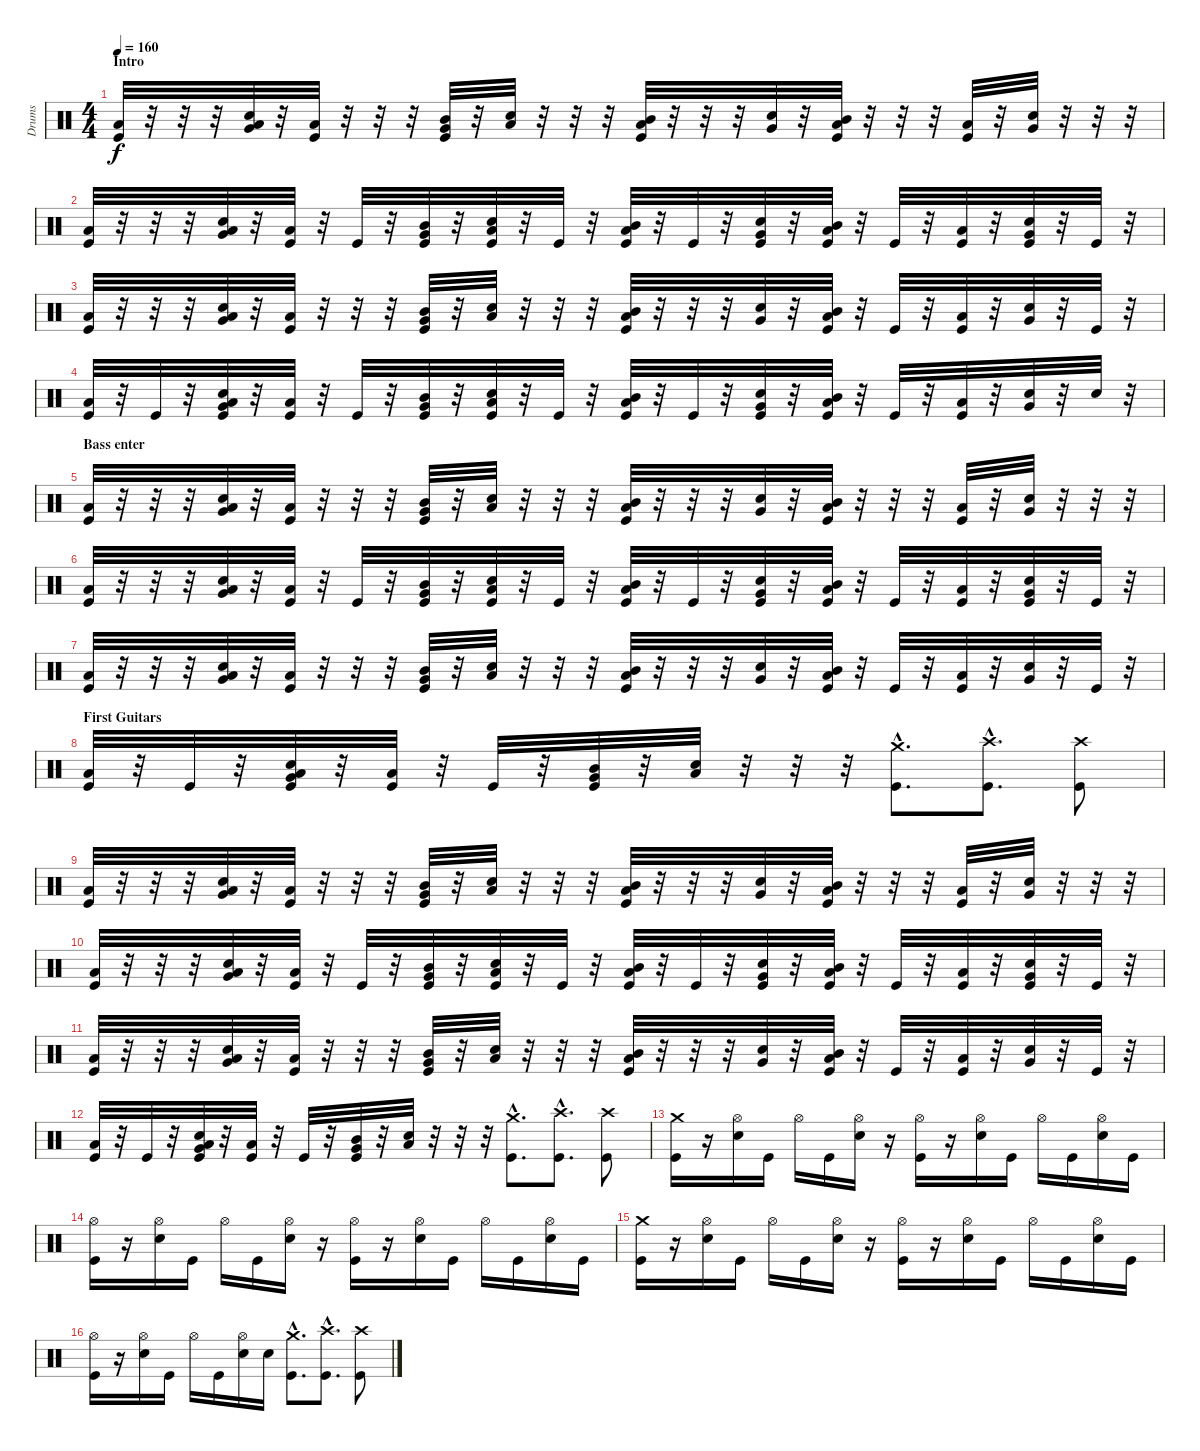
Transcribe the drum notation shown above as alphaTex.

\track ("Drums" "Drums") {instrument percussion}
\staff {score}
\articulation defaults
\ts (4 4)
\section ("" "Intro")
\tempo 160
\clef neutral
\ks c
("Low Tom (hit)" "Kick (hit)").32{dy f} r.32 r.32 r.32 ("Low Tom (hit)" "Very Low Tom (hit)" "Electric Snare (hit)").32 r.32 ("Low Tom (hit)" "Kick (hit)").32 r.32 r.32 r.32 ("Mid Tom (hit)" "Very Low Tom (hit)" "Kick (hit)").32 r.32 ("Low Tom (hit)" "Electric Snare (hit)").32 r.32 r.32 r.32 ("Low Tom (hit)" "Mid Tom (hit)" "Kick (hit)").32 r.32 r.32 r.32 ("Very Low Tom (hit)" "Electric Snare (hit)").32 r.32 ("Low Tom (hit)" "Mid Tom (hit)" "Kick (hit)").32 r.32 r.32 r.32 ("Low Tom (hit)" "Kick (hit)").32 r.32 ("Very Low Tom (hit)" "Electric Snare (hit)").32 r.32 r.32 r.32 |
("Low Tom (hit)" "Kick (hit)").32 r.32 r.32 r.32 ("Low Tom (hit)" "Very Low Tom (hit)" "Electric Snare (hit)").32 r.32 ("Low Tom (hit)" "Kick (hit)").32 r.32 "Kick (hit)".32 r.32 ("Mid Tom (hit)" "Very Low Tom (hit)" "Kick (hit)").32 r.32 ("Low Tom (hit)" "Electric Snare (hit)" "Kick (hit)").32 r.32 "Kick (hit)".32 r.32 ("Low Tom (hit)" "Mid Tom (hit)" "Kick (hit)").32 r.32 "Kick (hit)".32 r.32 ("Very Low Tom (hit)" "Electric Snare (hit)" "Kick (hit)").32 r.32 ("Low Tom (hit)" "Mid Tom (hit)" "Kick (hit)").32 r.32 "Kick (hit)".32 r.32 ("Low Tom (hit)" "Kick (hit)").32 r.32 ("Very Low Tom (hit)" "Electric Snare (hit)" "Kick (hit)").32 r.32 "Kick (hit)".32 r.32 |
("Low Tom (hit)" "Kick (hit)").32 r.32 r.32 r.32 ("Low Tom (hit)" "Very Low Tom (hit)" "Electric Snare (hit)").32 r.32 ("Low Tom (hit)" "Kick (hit)").32 r.32 r.32 r.32 ("Mid Tom (hit)" "Very Low Tom (hit)" "Kick (hit)").32 r.32 ("Low Tom (hit)" "Electric Snare (hit)").32 r.32 r.32 r.32 ("Low Tom (hit)" "Mid Tom (hit)" "Kick (hit)").32 r.32 r.32 r.32 ("Very Low Tom (hit)" "Electric Snare (hit)").32 r.32 ("Low Tom (hit)" "Mid Tom (hit)" "Kick (hit)").32 r.32 "Kick (hit)".32 r.32 ("Low Tom (hit)" "Kick (hit)").32 r.32 ("Very Low Tom (hit)" "Electric Snare (hit)").32 r.32 "Kick (hit)".32 r.32 |
("Low Tom (hit)" "Kick (hit)").32 r.32 "Kick (hit)".32 r.32 ("Low Tom (hit)" "Very Low Tom (hit)" "Electric Snare (hit)" "Kick (hit)").32 r.32 ("Low Tom (hit)" "Kick (hit)").32 r.32 "Kick (hit)".32 r.32 ("Mid Tom (hit)" "Very Low Tom (hit)" "Kick (hit)").32 r.32 ("Low Tom (hit)" "Electric Snare (hit)" "Kick (hit)").32 r.32 "Kick (hit)".32 r.32 ("Low Tom (hit)" "Mid Tom (hit)" "Kick (hit)").32 r.32 "Kick (hit)".32 r.32 ("Very Low Tom (hit)" "Electric Snare (hit)" "Kick (hit)").32 r.32 ("Low Tom (hit)" "Mid Tom (hit)" "Kick (hit)").32 r.32 "Kick (hit)".32 r.32 ("Low Tom (hit)" "Kick (hit)").32 r.32 ("Very Low Tom (hit)" "Electric Snare (hit)").32 r.32 "Electric Snare (hit)".32 r.32 |
\section ("" "Bass enter")
("Low Tom (hit)" "Kick (hit)").32 r.32 r.32 r.32 ("Low Tom (hit)" "Very Low Tom (hit)" "Electric Snare (hit)").32 r.32 ("Low Tom (hit)" "Kick (hit)").32 r.32 r.32 r.32 ("Mid Tom (hit)" "Very Low Tom (hit)" "Kick (hit)").32 r.32 ("Low Tom (hit)" "Electric Snare (hit)").32 r.32 r.32 r.32 ("Low Tom (hit)" "Mid Tom (hit)" "Kick (hit)").32 r.32 r.32 r.32 ("Very Low Tom (hit)" "Electric Snare (hit)").32 r.32 ("Low Tom (hit)" "Mid Tom (hit)" "Kick (hit)").32 r.32 r.32 r.32 ("Low Tom (hit)" "Kick (hit)").32 r.32 ("Very Low Tom (hit)" "Electric Snare (hit)").32 r.32 r.32 r.32 |
("Low Tom (hit)" "Kick (hit)").32 r.32 r.32 r.32 ("Low Tom (hit)" "Very Low Tom (hit)" "Electric Snare (hit)").32 r.32 ("Low Tom (hit)" "Kick (hit)").32 r.32 "Kick (hit)".32 r.32 ("Mid Tom (hit)" "Very Low Tom (hit)" "Kick (hit)").32 r.32 ("Low Tom (hit)" "Electric Snare (hit)" "Kick (hit)").32 r.32 "Kick (hit)".32 r.32 ("Low Tom (hit)" "Mid Tom (hit)" "Kick (hit)").32 r.32 "Kick (hit)".32 r.32 ("Very Low Tom (hit)" "Electric Snare (hit)" "Kick (hit)").32 r.32 ("Low Tom (hit)" "Mid Tom (hit)" "Kick (hit)").32 r.32 "Kick (hit)".32 r.32 ("Low Tom (hit)" "Kick (hit)").32 r.32 ("Very Low Tom (hit)" "Electric Snare (hit)" "Kick (hit)").32 r.32 "Kick (hit)".32 r.32 |
("Low Tom (hit)" "Kick (hit)").32 r.32 r.32 r.32 ("Low Tom (hit)" "Very Low Tom (hit)" "Electric Snare (hit)").32 r.32 ("Low Tom (hit)" "Kick (hit)").32 r.32 r.32 r.32 ("Mid Tom (hit)" "Very Low Tom (hit)" "Kick (hit)").32 r.32 ("Low Tom (hit)" "Electric Snare (hit)").32 r.32 r.32 r.32 ("Low Tom (hit)" "Mid Tom (hit)" "Kick (hit)").32 r.32 r.32 r.32 ("Very Low Tom (hit)" "Electric Snare (hit)").32 r.32 ("Low Tom (hit)" "Mid Tom (hit)" "Kick (hit)").32 r.32 "Kick (hit)".32 r.32 ("Low Tom (hit)" "Kick (hit)").32 r.32 ("Very Low Tom (hit)" "Electric Snare (hit)").32 r.32 "Kick (hit)".32 r.32 |
\section ("" "First Guitars")
("Low Tom (hit)" "Kick (hit)").32 r.32 "Kick (hit)".32 r.32 ("Low Tom (hit)" "Very Low Tom (hit)" "Electric Snare (hit)" "Kick (hit)").32 r.32 ("Low Tom (hit)" "Kick (hit)").32 r.32 "Kick (hit)".32 r.32 ("Mid Tom (hit)" "Very Low Tom (hit)" "Kick (hit)").32 r.32 ("Low Tom (hit)" "Electric Snare (hit)").32 r.32 r.32 r.32 ("Crash medium (hit)"{hac} "Kick (hit)"{hac}).8{d} ("Crash high (hit)"{hac} "Kick (hit)"{hac}).8{d} ("Crash high (hit)" "Kick (hit)").8 |
("Low Tom (hit)" "Kick (hit)").32 r.32 r.32 r.32 ("Low Tom (hit)" "Very Low Tom (hit)" "Electric Snare (hit)").32 r.32 ("Low Tom (hit)" "Kick (hit)").32 r.32 r.32 r.32 ("Mid Tom (hit)" "Very Low Tom (hit)" "Kick (hit)").32 r.32 ("Low Tom (hit)" "Electric Snare (hit)").32 r.32 r.32 r.32 ("Low Tom (hit)" "Mid Tom (hit)" "Kick (hit)").32 r.32 r.32 r.32 ("Very Low Tom (hit)" "Electric Snare (hit)").32 r.32 ("Low Tom (hit)" "Mid Tom (hit)" "Kick (hit)").32 r.32 r.32 r.32 ("Low Tom (hit)" "Kick (hit)").32 r.32 ("Very Low Tom (hit)" "Electric Snare (hit)").32 r.32 r.32 r.32 |
("Low Tom (hit)" "Kick (hit)").32 r.32 r.32 r.32 ("Low Tom (hit)" "Very Low Tom (hit)" "Electric Snare (hit)").32 r.32 ("Low Tom (hit)" "Kick (hit)").32 r.32 "Kick (hit)".32 r.32 ("Mid Tom (hit)" "Very Low Tom (hit)" "Kick (hit)").32 r.32 ("Low Tom (hit)" "Electric Snare (hit)" "Kick (hit)").32 r.32 "Kick (hit)".32 r.32 ("Low Tom (hit)" "Mid Tom (hit)" "Kick (hit)").32 r.32 "Kick (hit)".32 r.32 ("Very Low Tom (hit)" "Electric Snare (hit)" "Kick (hit)").32 r.32 ("Low Tom (hit)" "Mid Tom (hit)" "Kick (hit)").32 r.32 "Kick (hit)".32 r.32 ("Low Tom (hit)" "Kick (hit)").32 r.32 ("Very Low Tom (hit)" "Electric Snare (hit)" "Kick (hit)").32 r.32 "Kick (hit)".32 r.32 |
("Low Tom (hit)" "Kick (hit)").32 r.32 r.32 r.32 ("Low Tom (hit)" "Very Low Tom (hit)" "Electric Snare (hit)").32 r.32 ("Low Tom (hit)" "Kick (hit)").32 r.32 r.32 r.32 ("Mid Tom (hit)" "Very Low Tom (hit)" "Kick (hit)").32 r.32 ("Low Tom (hit)" "Electric Snare (hit)").32 r.32 r.32 r.32 ("Low Tom (hit)" "Mid Tom (hit)" "Kick (hit)").32 r.32 r.32 r.32 ("Very Low Tom (hit)" "Electric Snare (hit)").32 r.32 ("Low Tom (hit)" "Mid Tom (hit)" "Kick (hit)").32 r.32 "Kick (hit)".32 r.32 ("Low Tom (hit)" "Kick (hit)").32 r.32 ("Very Low Tom (hit)" "Electric Snare (hit)").32 r.32 "Kick (hit)".32 r.32 |
("Low Tom (hit)" "Kick (hit)").32 r.32 "Kick (hit)".32 r.32 ("Low Tom (hit)" "Very Low Tom (hit)" "Electric Snare (hit)" "Kick (hit)").32 r.32 ("Low Tom (hit)" "Kick (hit)").32 r.32 "Kick (hit)".32 r.32 ("Mid Tom (hit)" "Very Low Tom (hit)" "Kick (hit)").32 r.32 ("Low Tom (hit)" "Electric Snare (hit)").32 r.32 r.32 r.32 ("Crash medium (hit)"{hac} "Kick (hit)"{hac}).8{d} ("Crash high (hit)"{hac} "Kick (hit)"{hac}).8{d} ("Crash high (hit)" "Kick (hit)").8 |
("Crash medium (hit)" "Kick (hit)").16 r.16 ("Hi-Hat (open)" "Electric Snare (hit)").16 "Kick (hit)".16 "Hi-Hat (open)".16 "Kick (hit)".16 ("Hi-Hat (open)" "Electric Snare (hit)").16 r.16 ("Hi-Hat (open)" "Kick (hit)").16 r.16 ("Hi-Hat (open)" "Electric Snare (hit)").16 "Kick (hit)".16 "Hi-Hat (open)".16 "Kick (hit)".16 ("Hi-Hat (open)" "Electric Snare (hit)").16 "Kick (hit)".16 |
("Hi-Hat (open)" "Kick (hit)").16 r.16 ("Hi-Hat (open)" "Electric Snare (hit)").16 "Kick (hit)".16 "Hi-Hat (open)".16 "Kick (hit)".16 ("Hi-Hat (open)" "Electric Snare (hit)").16 r.16 ("Hi-Hat (open)" "Kick (hit)").16 r.16 ("Hi-Hat (open)" "Electric Snare (hit)").16 "Kick (hit)".16 "Hi-Hat (open)".16 "Kick (hit)".16 ("Hi-Hat (open)" "Electric Snare (hit)").16 "Kick (hit)".16 |
("Crash medium (hit)" "Kick (hit)").16 r.16 ("Hi-Hat (open)" "Electric Snare (hit)").16 "Kick (hit)".16 "Hi-Hat (open)".16 "Kick (hit)".16 ("Hi-Hat (open)" "Electric Snare (hit)").16 r.16 ("Hi-Hat (open)" "Kick (hit)").16 r.16 ("Hi-Hat (open)" "Electric Snare (hit)").16 "Kick (hit)".16 "Hi-Hat (open)".16 "Kick (hit)".16 ("Hi-Hat (open)" "Electric Snare (hit)").16 "Kick (hit)".16 |
("Hi-Hat (open)" "Kick (hit)").16 r.16 ("Hi-Hat (open)" "Electric Snare (hit)").16 "Kick (hit)".16 "Hi-Hat (open)".16 "Kick (hit)".16 ("Hi-Hat (open)" "Electric Snare (hit)").16 "Electric Snare (hit)".16 ("Crash medium (hit)"{hac} "Kick (hit)"{hac}).8{d} ("Crash high (hit)"{hac} "Kick (hit)"{hac}).8{d} ("Crash high (hit)" "Kick (hit)").8
